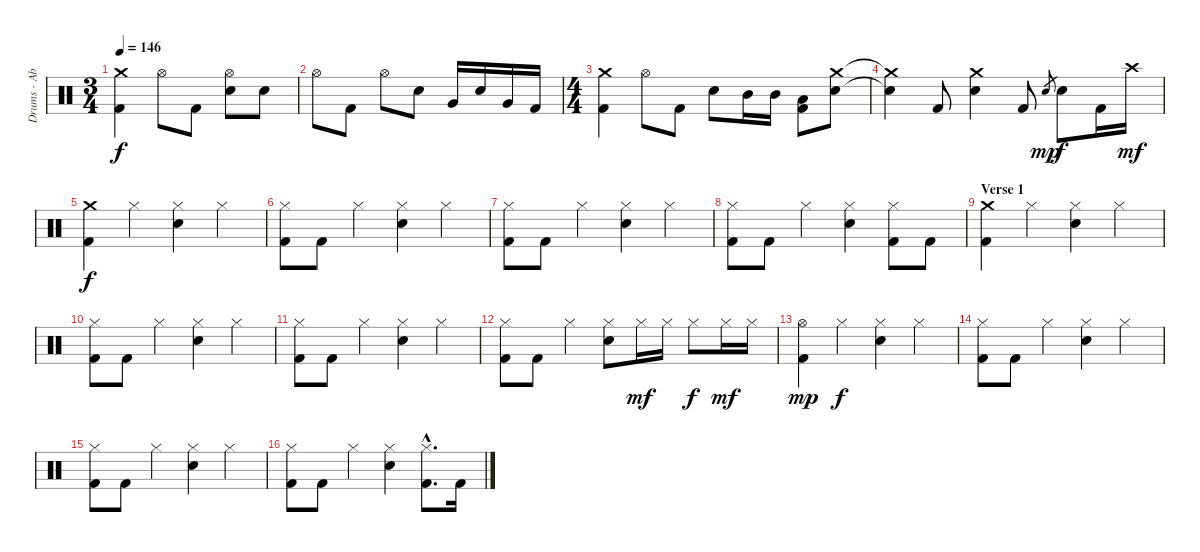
\track ("Drums - Abe Cunningham" "Drums - Ab") {instrument percussion}
\staff {score}
\articulation defaults
\ts (3 4)
\tempo 146
\clef neutral
\ks c
("Crash medium (hit)" "Kick (hit) 2").4{dy f} "Hi-Hat (open)".8 "Kick (hit) 2".8 ("Hi-Hat (open)" "Electric Snare (hit)").8 "Electric Snare (hit)".8 |
"Hi-Hat (open)".8 "Kick (hit) 2".8 "Hi-Hat (open)".8 "Electric Snare (hit)".8 "Very Low Tom (hit)".16 "Electric Snare (hit)".16 "Very Low Tom (hit)".16 "Kick (hit) 2".16 |
\ts (4 4)
("Crash medium (hit)" "Kick (hit) 2").4 "Hi-Hat (open)".8 "Kick (hit) 2".8 "Electric Snare (hit)".8 "Mid Tom (hit)".16 "Mid Tom (hit)".16 ("Low Tom (hit)" "Kick (hit) 2").8 ("Crash medium (hit)" "Electric Snare (hit)").8 |
("Crash medium (hit)"{t} "Electric Snare (hit)"{t}).4 "Kick (hit) 2".8 ("Crash medium (hit)" "Electric Snare (hit)").4 "Kick (hit) 2".8 "Electric Snare (hit)".8{gr dy mp} "Electric Snare (hit)".8{dy f} "Kick (hit) 2".16 "Crash high (hit)".16{dy mf} |
("Crash medium (hit)" "Kick (hit) 2").4{dy f} "Hi-Hat (closed)".4 ("Hi-Hat (closed)" "Electric Snare (hit)").4 "Hi-Hat (closed)".4 |
("Hi-Hat (closed)" "Kick (hit) 2").8 "Kick (hit) 2".8 "Hi-Hat (closed)".4 ("Hi-Hat (closed)" "Electric Snare (hit)").4 "Hi-Hat (closed)".4 |
("Hi-Hat (closed)" "Kick (hit) 2").8 "Kick (hit) 2".8 "Hi-Hat (closed)".4 ("Hi-Hat (closed)" "Electric Snare (hit)").4 "Hi-Hat (closed)".4 |
("Hi-Hat (closed)" "Kick (hit) 2").8 "Kick (hit) 2".8 "Hi-Hat (closed)".4 ("Hi-Hat (closed)" "Electric Snare (hit)").4 ("Hi-Hat (closed)" "Kick (hit) 2").8 "Kick (hit) 2".8 |
\section ("" "Verse 1")
("Crash medium (hit)" "Kick (hit) 2").4 "Hi-Hat (closed)".4 ("Hi-Hat (closed)" "Electric Snare (hit)").4 "Hi-Hat (closed)".4 |
("Hi-Hat (closed)" "Kick (hit) 2").8 "Kick (hit) 2".8 "Hi-Hat (closed)".4 ("Hi-Hat (closed)" "Electric Snare (hit)").4 "Hi-Hat (closed)".4 |
("Hi-Hat (closed)" "Kick (hit) 2").8 "Kick (hit) 2".8 "Hi-Hat (closed)".4 ("Hi-Hat (closed)" "Electric Snare (hit)").4 "Hi-Hat (closed)".4 |
("Hi-Hat (closed)" "Kick (hit) 2").8 "Kick (hit) 2".8 "Hi-Hat (closed)".4 ("Hi-Hat (closed)" "Electric Snare (hit)").8 "Hi-Hat (closed)".16{dy mf} "Hi-Hat (closed)".16 "Hi-Hat (closed)".8{dy f} "Hi-Hat (closed)".16{dy mf} "Hi-Hat (closed)".16 |
("Hi-Hat (open)" "Kick (hit) 2").4{dy mp} "Hi-Hat (closed)".4{dy f} ("Hi-Hat (closed)" "Electric Snare (hit)").4 "Hi-Hat (closed)".4 |
("Hi-Hat (closed)" "Kick (hit) 2").8 "Kick (hit) 2".8 "Hi-Hat (closed)".4 ("Hi-Hat (closed)" "Electric Snare (hit)").4 "Hi-Hat (closed)".4 |
("Hi-Hat (closed)" "Kick (hit) 2").8 "Kick (hit) 2".8 "Hi-Hat (closed)".4 ("Hi-Hat (closed)" "Electric Snare (hit)").4 "Hi-Hat (closed)".4 |
("Hi-Hat (closed)" "Kick (hit) 2").8 "Kick (hit) 2".8 "Hi-Hat (closed)".4 ("Hi-Hat (closed)" "Electric Snare (hit)").4 ("Hi-Hat (closed)"{hac} "Kick (hit) 2"{hac}).8{d} "Kick (hit) 2".16
